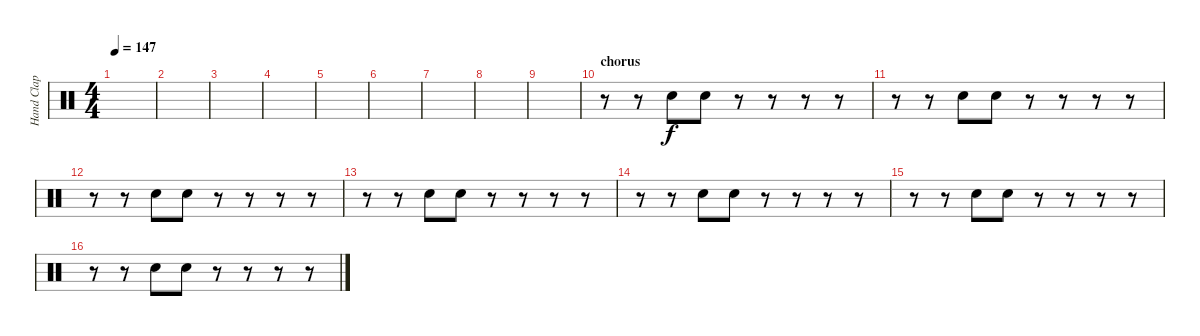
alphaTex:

\track ("Hand Clap" "Hand Clap") {instrument percussion}
\staff {score}
\articulation defaults
\ts (4 4)
\tempo 147
\clef neutral
\ks c
|
|
|
|
|
|
|
|
|
\section ("" "chorus")
r.8 r.8 "Hand Clap (hit)".8 "Hand Clap (hit)".8 r.8 r.8 r.8 r.8 |
r.8 r.8 "Hand Clap (hit)".8 "Hand Clap (hit)".8 r.8 r.8 r.8 r.8 |
r.8 r.8 "Hand Clap (hit)".8 "Hand Clap (hit)".8 r.8 r.8 r.8 r.8 |
r.8 r.8 "Hand Clap (hit)".8 "Hand Clap (hit)".8 r.8 r.8 r.8 r.8 |
r.8 r.8 "Hand Clap (hit)".8 "Hand Clap (hit)".8 r.8 r.8 r.8 r.8 |
r.8 r.8 "Hand Clap (hit)".8 "Hand Clap (hit)".8 r.8 r.8 r.8 r.8 |
r.8 r.8 "Hand Clap (hit)".8 "Hand Clap (hit)".8 r.8 r.8 r.8 r.8
